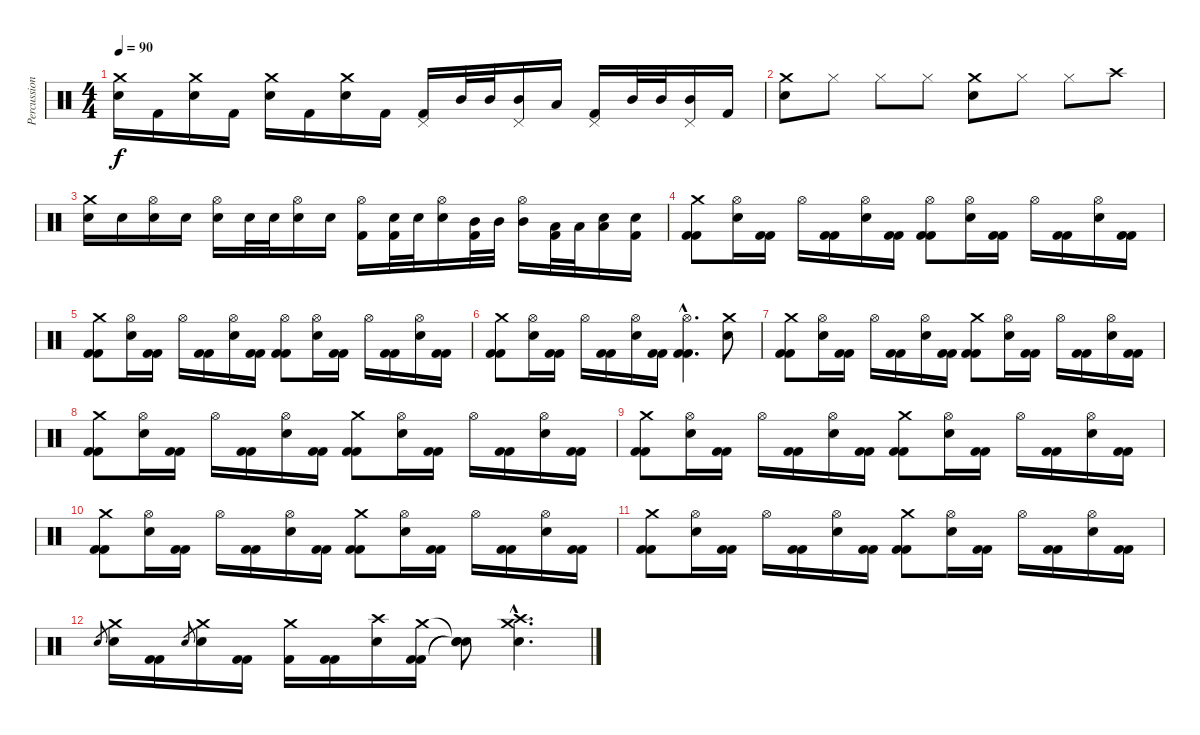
\track ("Percussioni" "Percussion") {instrument percussion}
\staff {score}
\articulation defaults
\ts (4 4)
\tempo 90
\clef neutral
\ks c
("Crash medium (hit)" "Electric Snare (hit)").16{dy f} "Kick (hit) 2".16 ("Crash medium (hit)" "Electric Snare (hit)").16 "Kick (hit) 2".16 ("Crash medium (hit)" "Electric Snare (hit)").16 "Kick (hit) 2".16 ("Crash medium (hit)" "Electric Snare (hit)").16 "Kick (hit) 2".16 ("Pedal Hi-Hat (hit)" "Kick (hit) 2").16 "Mid Tom (hit)".32 "Mid Tom (hit)".32 ("Pedal Hi-Hat (hit)" "Mid Tom (hit)").16 "Low Tom (hit)".16 ("Pedal Hi-Hat (hit)" "Kick (hit) 2").16 "Mid Tom (hit)".32 "Mid Tom (hit)".32 ("Pedal Hi-Hat (hit)" "Mid Tom (hit)").16 "Kick (hit) 2".16 |
("Crash medium (hit)" "Electric Snare (hit)").8 "Hi-Hat (closed)".8 "Hi-Hat (closed)".8 "Hi-Hat (closed)".8 ("Crash medium (hit)" "Electric Snare (hit)").8 "Hi-Hat (closed)".8 "Hi-Hat (closed)".8 "Crash high (hit)".8 |
("Crash medium (hit)" "Electric Snare (hit)").16 "Electric Snare (hit)".16 ("Hi-Hat (open)" "Electric Snare (hit)").16 "Electric Snare (hit)".16 ("Hi-Hat (open)" "Electric Snare (hit)").16 "Electric Snare (hit)".32 "Electric Snare (hit)".32 ("Hi-Hat (open)" "Electric Snare (hit)").16 "Electric Snare (hit)".16 ("Hi-Hat (open)" "Kick (hit) 2").16 ("Electric Snare (hit)" "Kick (hit) 2").32 "Electric Snare (hit)".32 ("Hi-Hat (open)" "Electric Snare (hit)").16 ("Mid Tom (hit)" "Kick (hit) 2").32 "Mid Tom (hit)".32 ("Hi-Hat (open)" "Mid Tom (hit)").16 ("Low Tom (hit)" "Kick (hit) 2").32 "Low Tom (hit)".32 ("Low Tom (hit)" "Electric Snare (hit)").16 ("Electric Snare (hit)" "Kick (hit) 2").16 |
("Crash medium (hit)" "Kick (hit) 2" "Kick (hit) 2").8 ("Hi-Hat (open)" "Electric Snare (hit)").16 ("Kick (hit) 2" "Kick (hit) 2").16 "Hi-Hat (open)".16 ("Kick (hit) 2" "Kick (hit) 2").16 ("Hi-Hat (open)" "Electric Snare (hit)").16 ("Kick (hit) 2" "Kick (hit) 2").16 ("Hi-Hat (open)" "Kick (hit) 2" "Kick (hit) 2").8 ("Hi-Hat (open)" "Electric Snare (hit)").16 ("Kick (hit) 2" "Kick (hit) 2").16 "Hi-Hat (open)".16 ("Kick (hit) 2" "Kick (hit) 2").16 ("Hi-Hat (open)" "Electric Snare (hit)").16 ("Kick (hit) 2" "Kick (hit) 2").16 |
("Crash medium (hit)" "Kick (hit) 2" "Kick (hit) 2").8 ("Hi-Hat (open)" "Electric Snare (hit)").16 ("Kick (hit) 2" "Kick (hit) 2").16 "Hi-Hat (open)".16 ("Kick (hit) 2" "Kick (hit) 2").16 ("Hi-Hat (open)" "Electric Snare (hit)").16 ("Kick (hit) 2" "Kick (hit) 2").16 ("Hi-Hat (open)" "Kick (hit) 2" "Kick (hit) 2").8 ("Hi-Hat (open)" "Electric Snare (hit)").16 ("Kick (hit) 2" "Kick (hit) 2").16 "Hi-Hat (open)".16 ("Kick (hit) 2" "Kick (hit) 2").16 ("Hi-Hat (open)" "Electric Snare (hit)").16 ("Kick (hit) 2" "Kick (hit) 2").16 |
("Crash medium (hit)" "Kick (hit) 2" "Kick (hit) 2").8 ("Hi-Hat (open)" "Electric Snare (hit)").16 ("Kick (hit) 2" "Kick (hit) 2").16 "Hi-Hat (open)".16 ("Kick (hit) 2" "Kick (hit) 2").16 ("Hi-Hat (open)" "Electric Snare (hit)").16 ("Kick (hit) 2" "Kick (hit) 2").16 ("Hi-Hat (open)"{hac} "Kick (hit) 2"{hac} "Kick (hit) 2"{hac}).4{d} ("Crash medium (hit)" "Electric Snare (hit)").8 |
("Crash medium (hit)" "Kick (hit) 2" "Kick (hit) 2").8 ("Hi-Hat (open)" "Electric Snare (hit)").16 ("Kick (hit) 2" "Kick (hit) 2").16 "Hi-Hat (open)".16 ("Kick (hit) 2" "Kick (hit) 2").16 ("Hi-Hat (open)" "Electric Snare (hit)").16 ("Kick (hit) 2" "Kick (hit) 2").16 ("Crash medium (hit)" "Kick (hit) 2" "Kick (hit) 2").8 ("Hi-Hat (open)" "Electric Snare (hit)").16 ("Kick (hit) 2" "Kick (hit) 2").16 "Hi-Hat (open)".16 ("Kick (hit) 2" "Kick (hit) 2").16 ("Hi-Hat (open)" "Electric Snare (hit)").16 ("Kick (hit) 2" "Kick (hit) 2").16 |
("Crash medium (hit)" "Kick (hit) 2" "Kick (hit) 2").8 ("Hi-Hat (open)" "Electric Snare (hit)").16 ("Kick (hit) 2" "Kick (hit) 2").16 "Hi-Hat (open)".16 ("Kick (hit) 2" "Kick (hit) 2").16 ("Hi-Hat (open)" "Electric Snare (hit)").16 ("Kick (hit) 2" "Kick (hit) 2").16 ("Crash medium (hit)" "Kick (hit) 2" "Kick (hit) 2").8 ("Hi-Hat (open)" "Electric Snare (hit)").16 ("Kick (hit) 2" "Kick (hit) 2").16 "Hi-Hat (open)".16 ("Kick (hit) 2" "Kick (hit) 2").16 ("Hi-Hat (open)" "Electric Snare (hit)").16 ("Kick (hit) 2" "Kick (hit) 2").16 |
("Crash medium (hit)" "Kick (hit) 2" "Kick (hit) 2").8 ("Hi-Hat (open)" "Electric Snare (hit)").16 ("Kick (hit) 2" "Kick (hit) 2").16 "Hi-Hat (open)".16 ("Kick (hit) 2" "Kick (hit) 2").16 ("Hi-Hat (open)" "Electric Snare (hit)").16 ("Kick (hit) 2" "Kick (hit) 2").16 ("Crash medium (hit)" "Kick (hit) 2" "Kick (hit) 2").8 ("Hi-Hat (open)" "Electric Snare (hit)").16 ("Kick (hit) 2" "Kick (hit) 2").16 "Hi-Hat (open)".16 ("Kick (hit) 2" "Kick (hit) 2").16 ("Hi-Hat (open)" "Electric Snare (hit)").16 ("Kick (hit) 2" "Kick (hit) 2").16 |
("Crash medium (hit)" "Kick (hit) 2" "Kick (hit) 2").8 ("Hi-Hat (open)" "Electric Snare (hit)").16 ("Kick (hit) 2" "Kick (hit) 2").16 "Hi-Hat (open)".16 ("Kick (hit) 2" "Kick (hit) 2").16 ("Hi-Hat (open)" "Electric Snare (hit)").16 ("Kick (hit) 2" "Kick (hit) 2").16 ("Crash medium (hit)" "Kick (hit) 2" "Kick (hit) 2").8 ("Hi-Hat (open)" "Electric Snare (hit)").16 ("Kick (hit) 2" "Kick (hit) 2").16 "Hi-Hat (open)".16 ("Kick (hit) 2" "Kick (hit) 2").16 ("Hi-Hat (open)" "Electric Snare (hit)").16 ("Kick (hit) 2" "Kick (hit) 2").16 |
("Crash medium (hit)" "Kick (hit) 2" "Kick (hit) 2").8 ("Hi-Hat (open)" "Electric Snare (hit)").16 ("Kick (hit) 2" "Kick (hit) 2").16 "Hi-Hat (open)".16 ("Kick (hit) 2" "Kick (hit) 2").16 ("Hi-Hat (open)" "Electric Snare (hit)").16 ("Kick (hit) 2" "Kick (hit) 2").16 ("Crash medium (hit)" "Kick (hit) 2" "Kick (hit) 2").8 ("Hi-Hat (open)" "Electric Snare (hit)").16 ("Kick (hit) 2" "Kick (hit) 2").16 "Hi-Hat (open)".16 ("Kick (hit) 2" "Kick (hit) 2").16 ("Hi-Hat (open)" "Electric Snare (hit)").16 ("Kick (hit) 2" "Kick (hit) 2").16 |
"Electric Snare (hit)".8{gr} ("Crash medium (hit)" "Electric Snare (hit)").16 ("Kick (hit) 2" "Kick (hit) 2").16 "Electric Snare (hit)".8{gr} ("Crash medium (hit)" "Electric Snare (hit)").16 ("Kick (hit) 2" "Kick (hit) 2").16 ("Crash medium (hit)" "Kick (hit) 2").16 ("Kick (hit) 2" "Kick (hit) 2").16 ("Crash high (hit)" "Electric Snare (hit)").16 ("Crash medium (hit)" "Kick (hit) 2" "Kick (hit) 2").16 ("Snare (hit)"{t} "Snare (hit)"{t} "Snare (hit)"{t}).8 ("Crash high (hit)"{hac} "Crash medium (hit)"{hac} "Electric Snare (hit)"{hac}).4{d}
